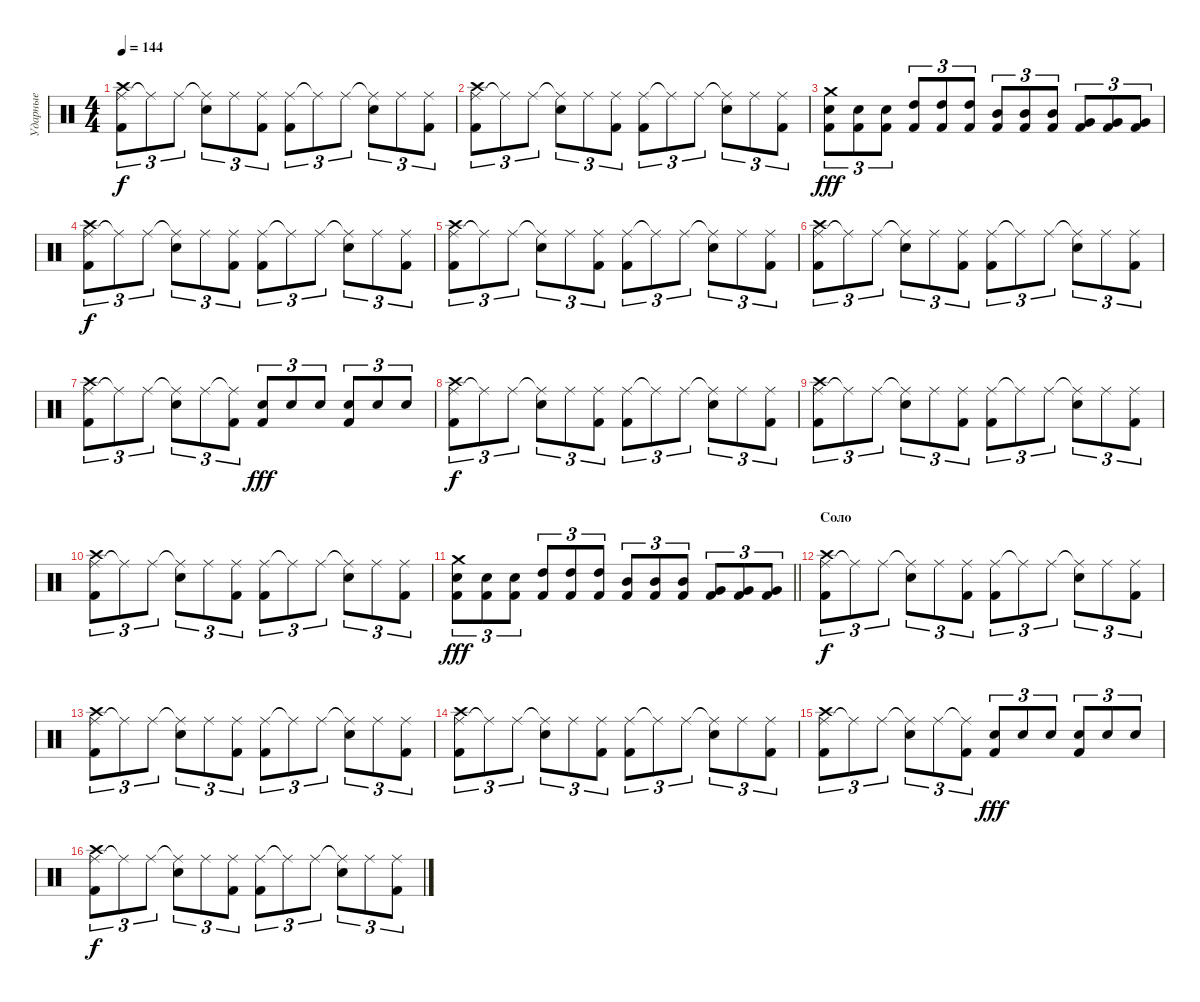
\track ("Ударные" "Ударные") {instrument percussion}
\staff {score}
\articulation defaults
\ts (4 4)
\tempo 144
\clef neutral
\ks c
("Ride (middle)" "Kick (hit) 2" "Crash high (hit)").8{tu (3 2) dy f} "Ride (middle)"{t}.8{tu (3 2)} "Ride (middle)".8{tu (3 2)} ("Ride (middle)"{t} "Snare (hit) 2").8{tu (3 2)} "Ride (middle)".8{tu (3 2)} ("Ride (middle)" "Kick (hit) 2").8{tu (3 2)} ("Ride (middle)" "Kick (hit) 2").8{tu (3 2)} "Ride (middle)"{t}.8{tu (3 2)} "Ride (middle)".8{tu (3 2)} ("Ride (middle)"{t} "Snare (hit) 2").8{tu (3 2)} "Ride (middle)".8{tu (3 2)} ("Ride (middle)" "Kick (hit) 2").8{tu (3 2)} |
("Ride (middle)" "Kick (hit) 2" "Crash high (hit)").8{tu (3 2)} "Ride (middle)"{t}.8{tu (3 2)} "Ride (middle)".8{tu (3 2)} ("Ride (middle)"{t} "Snare (hit) 2").8{tu (3 2)} "Ride (middle)".8{tu (3 2)} ("Ride (middle)" "Kick (hit) 2").8{tu (3 2)} ("Ride (middle)" "Kick (hit) 2").8{tu (3 2)} "Ride (middle)"{t}.8{tu (3 2)} "Ride (middle)".8{tu (3 2)} ("Ride (middle)"{t} "Snare (hit) 2").8{tu (3 2)} "Ride (middle)".8{tu (3 2)} ("Ride (middle)" "Kick (hit) 2").8{tu (3 2)} |
("Snare (hit) 2" "Crash medium (hit)" "Kick (hit) 2").8{tu (3 2) dy fff} ("Snare (hit) 2" "Kick (hit) 2").8{tu (3 2)} ("Snare (hit) 2" "Kick (hit) 2").8{tu (3 2)} ("High Tom (hit)" "Kick (hit) 2").8{tu (3 2)} ("High Tom (hit)" "Kick (hit) 2").8{tu (3 2)} ("High Tom (hit)" "Kick (hit) 2").8{tu (3 2)} ("Mid Tom (hit)" "Kick (hit) 2").8{tu (3 2)} ("Mid Tom (hit)" "Kick (hit) 2").8{tu (3 2)} ("Mid Tom (hit)" "Kick (hit) 2").8{tu (3 2)} ("Very Low Tom (hit)" "Kick (hit) 2").8{tu (3 2)} ("Very Low Tom (hit)" "Kick (hit) 2").8{tu (3 2)} ("Very Low Tom (hit)" "Kick (hit) 2").8{tu (3 2)} |
("Ride (middle)" "Kick (hit) 2" "Crash high (hit)").8{tu (3 2) dy f} "Ride (middle)"{t}.8{tu (3 2)} "Ride (middle)".8{tu (3 2)} ("Ride (middle)"{t} "Snare (hit) 2").8{tu (3 2)} "Ride (middle)".8{tu (3 2)} ("Ride (middle)" "Kick (hit) 2").8{tu (3 2)} ("Ride (middle)" "Kick (hit) 2").8{tu (3 2)} "Ride (middle)"{t}.8{tu (3 2)} "Ride (middle)".8{tu (3 2)} ("Ride (middle)"{t} "Snare (hit) 2").8{tu (3 2)} "Ride (middle)".8{tu (3 2)} ("Ride (middle)" "Kick (hit) 2").8{tu (3 2)} |
("Ride (middle)" "Kick (hit) 2" "Crash high (hit)").8{tu (3 2)} "Ride (middle)"{t}.8{tu (3 2)} "Ride (middle)".8{tu (3 2)} ("Ride (middle)"{t} "Snare (hit) 2").8{tu (3 2)} "Ride (middle)".8{tu (3 2)} ("Ride (middle)" "Kick (hit) 2").8{tu (3 2)} ("Ride (middle)" "Kick (hit) 2").8{tu (3 2)} "Ride (middle)"{t}.8{tu (3 2)} "Ride (middle)".8{tu (3 2)} ("Ride (middle)"{t} "Snare (hit) 2").8{tu (3 2)} "Ride (middle)".8{tu (3 2)} ("Ride (middle)" "Kick (hit) 2").8{tu (3 2)} |
("Ride (middle)" "Kick (hit) 2" "Crash high (hit)").8{tu (3 2)} "Ride (middle)"{t}.8{tu (3 2)} "Ride (middle)".8{tu (3 2)} ("Ride (middle)"{t} "Snare (hit) 2").8{tu (3 2)} "Ride (middle)".8{tu (3 2)} ("Ride (middle)" "Kick (hit) 2").8{tu (3 2)} ("Ride (middle)" "Kick (hit) 2").8{tu (3 2)} "Ride (middle)"{t}.8{tu (3 2)} "Ride (middle)".8{tu (3 2)} ("Ride (middle)"{t} "Snare (hit) 2").8{tu (3 2)} "Ride (middle)".8{tu (3 2)} ("Ride (middle)" "Kick (hit) 2").8{tu (3 2)} |
("Ride (middle)" "Kick (hit) 2" "Crash high (hit)").8{tu (3 2)} "Ride (middle)"{t}.8{tu (3 2)} "Ride (middle)".8{tu (3 2)} ("Ride (middle)"{t} "Snare (hit) 2").8{tu (3 2)} "Ride (middle)".8{tu (3 2)} ("Ride (middle)"{t} "Kick (hit) 2").8{tu (3 2)} ("Snare (hit) 2" "Kick (hit) 2").8{tu (3 2) dy fff} "Snare (hit) 2".8{tu (3 2)} "Snare (hit) 2".8{tu (3 2)} ("Snare (hit) 2" "Kick (hit) 2").8{tu (3 2)} "Snare (hit) 2".8{tu (3 2)} "Snare (hit) 2".8{tu (3 2)} |
("Ride (middle)" "Kick (hit) 2" "Crash high (hit)").8{tu (3 2) dy f} "Ride (middle)"{t}.8{tu (3 2)} "Ride (middle)".8{tu (3 2)} ("Ride (middle)"{t} "Snare (hit) 2").8{tu (3 2)} "Ride (middle)".8{tu (3 2)} ("Ride (middle)" "Kick (hit) 2").8{tu (3 2)} ("Ride (middle)" "Kick (hit) 2").8{tu (3 2)} "Ride (middle)"{t}.8{tu (3 2)} "Ride (middle)".8{tu (3 2)} ("Ride (middle)"{t} "Snare (hit) 2").8{tu (3 2)} "Ride (middle)".8{tu (3 2)} ("Ride (middle)" "Kick (hit) 2").8{tu (3 2)} |
("Ride (middle)" "Kick (hit) 2" "Crash high (hit)").8{tu (3 2)} "Ride (middle)"{t}.8{tu (3 2)} "Ride (middle)".8{tu (3 2)} ("Ride (middle)"{t} "Snare (hit) 2").8{tu (3 2)} "Ride (middle)".8{tu (3 2)} ("Ride (middle)" "Kick (hit) 2").8{tu (3 2)} ("Ride (middle)" "Kick (hit) 2").8{tu (3 2)} "Ride (middle)"{t}.8{tu (3 2)} "Ride (middle)".8{tu (3 2)} ("Ride (middle)"{t} "Snare (hit) 2").8{tu (3 2)} "Ride (middle)".8{tu (3 2)} ("Ride (middle)" "Kick (hit) 2").8{tu (3 2)} |
("Ride (middle)" "Kick (hit) 2" "Crash high (hit)").8{tu (3 2)} "Ride (middle)"{t}.8{tu (3 2)} "Ride (middle)".8{tu (3 2)} ("Ride (middle)"{t} "Snare (hit) 2").8{tu (3 2)} "Ride (middle)".8{tu (3 2)} ("Ride (middle)" "Kick (hit) 2").8{tu (3 2)} ("Ride (middle)" "Kick (hit) 2").8{tu (3 2)} "Ride (middle)"{t}.8{tu (3 2)} "Ride (middle)".8{tu (3 2)} ("Ride (middle)"{t} "Snare (hit) 2").8{tu (3 2)} "Ride (middle)".8{tu (3 2)} ("Ride (middle)" "Kick (hit) 2").8{tu (3 2)} |
\barLineRight lightlight
("Snare (hit) 2" "Crash medium (hit)" "Kick (hit) 2").8{tu (3 2) dy fff} ("Snare (hit) 2" "Kick (hit) 2").8{tu (3 2)} ("Snare (hit) 2" "Kick (hit) 2").8{tu (3 2)} ("High Tom (hit)" "Kick (hit) 2").8{tu (3 2)} ("High Tom (hit)" "Kick (hit) 2").8{tu (3 2)} ("High Tom (hit)" "Kick (hit) 2").8{tu (3 2)} ("Mid Tom (hit)" "Kick (hit) 2").8{tu (3 2)} ("Mid Tom (hit)" "Kick (hit) 2").8{tu (3 2)} ("Mid Tom (hit)" "Kick (hit) 2").8{tu (3 2)} ("Very Low Tom (hit)" "Kick (hit) 2").8{tu (3 2)} ("Very Low Tom (hit)" "Kick (hit) 2").8{tu (3 2)} ("Very Low Tom (hit)" "Kick (hit) 2").8{tu (3 2)} |
\section ("" "Соло")
("Ride (middle)" "Kick (hit) 2" "Crash high (hit)").8{tu (3 2) dy f} "Ride (middle)"{t}.8{tu (3 2)} "Ride (middle)".8{tu (3 2)} ("Ride (middle)"{t} "Snare (hit) 2").8{tu (3 2)} "Ride (middle)".8{tu (3 2)} ("Ride (middle)" "Kick (hit) 2").8{tu (3 2)} ("Ride (middle)" "Kick (hit) 2").8{tu (3 2)} "Ride (middle)"{t}.8{tu (3 2)} "Ride (middle)".8{tu (3 2)} ("Ride (middle)"{t} "Snare (hit) 2").8{tu (3 2)} "Ride (middle)".8{tu (3 2)} ("Ride (middle)" "Kick (hit) 2").8{tu (3 2)} |
("Ride (middle)" "Kick (hit) 2" "Crash high (hit)").8{tu (3 2)} "Ride (middle)"{t}.8{tu (3 2)} "Ride (middle)".8{tu (3 2)} ("Ride (middle)"{t} "Snare (hit) 2").8{tu (3 2)} "Ride (middle)".8{tu (3 2)} ("Ride (middle)" "Kick (hit) 2").8{tu (3 2)} ("Ride (middle)" "Kick (hit) 2").8{tu (3 2)} "Ride (middle)"{t}.8{tu (3 2)} "Ride (middle)".8{tu (3 2)} ("Ride (middle)"{t} "Snare (hit) 2").8{tu (3 2)} "Ride (middle)".8{tu (3 2)} ("Ride (middle)" "Kick (hit) 2").8{tu (3 2)} |
("Ride (middle)" "Kick (hit) 2" "Crash high (hit)").8{tu (3 2)} "Ride (middle)"{t}.8{tu (3 2)} "Ride (middle)".8{tu (3 2)} ("Ride (middle)"{t} "Snare (hit) 2").8{tu (3 2)} "Ride (middle)".8{tu (3 2)} ("Ride (middle)" "Kick (hit) 2").8{tu (3 2)} ("Ride (middle)" "Kick (hit) 2").8{tu (3 2)} "Ride (middle)"{t}.8{tu (3 2)} "Ride (middle)".8{tu (3 2)} ("Ride (middle)"{t} "Snare (hit) 2").8{tu (3 2)} "Ride (middle)".8{tu (3 2)} ("Ride (middle)" "Kick (hit) 2").8{tu (3 2)} |
("Ride (middle)" "Kick (hit) 2" "Crash high (hit)").8{tu (3 2)} "Ride (middle)"{t}.8{tu (3 2)} "Ride (middle)".8{tu (3 2)} ("Ride (middle)"{t} "Snare (hit) 2").8{tu (3 2)} "Ride (middle)".8{tu (3 2)} ("Ride (middle)"{t} "Kick (hit) 2").8{tu (3 2)} ("Snare (hit) 2" "Kick (hit) 2").8{tu (3 2) dy fff} "Snare (hit) 2".8{tu (3 2)} "Snare (hit) 2".8{tu (3 2)} ("Snare (hit) 2" "Kick (hit) 2").8{tu (3 2)} "Snare (hit) 2".8{tu (3 2)} "Snare (hit) 2".8{tu (3 2)} |
("Ride (middle)" "Kick (hit) 2" "Crash high (hit)").8{tu (3 2) dy f} "Ride (middle)"{t}.8{tu (3 2)} "Ride (middle)".8{tu (3 2)} ("Ride (middle)"{t} "Snare (hit) 2").8{tu (3 2)} "Ride (middle)".8{tu (3 2)} ("Ride (middle)" "Kick (hit) 2").8{tu (3 2)} ("Ride (middle)" "Kick (hit) 2").8{tu (3 2)} "Ride (middle)"{t}.8{tu (3 2)} "Ride (middle)".8{tu (3 2)} ("Ride (middle)"{t} "Snare (hit) 2").8{tu (3 2)} "Ride (middle)".8{tu (3 2)} ("Ride (middle)" "Kick (hit) 2").8{tu (3 2)}
